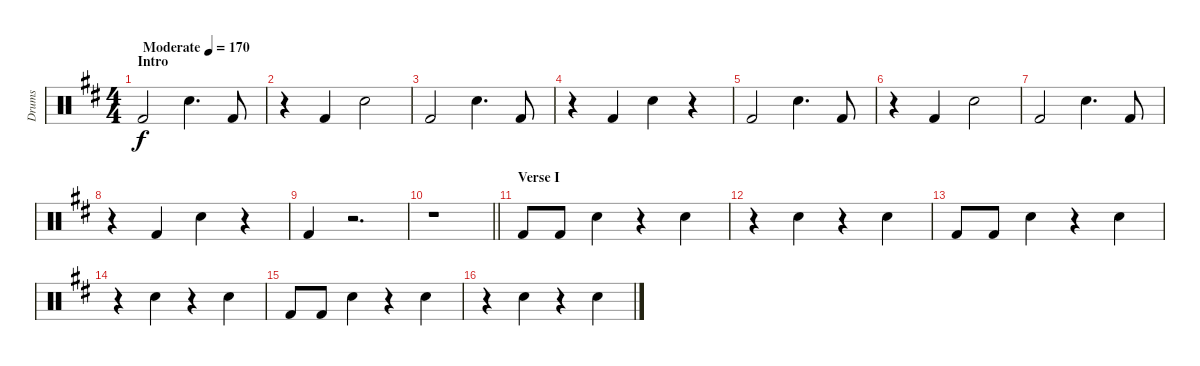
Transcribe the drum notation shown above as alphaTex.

\track ("Drums" "Drums") {instrument percussion}
\staff {score}
\articulation defaults
\ts (4 4)
\section ("" "Intro")
\tempo (170 "Moderate")
\clef neutral
\ks d "Kick (hit) 2".2{dy f} "Electric Snare (hit)".4{d} "Kick (hit) 2".8
|
r.4 "Kick (hit) 2".4 "Electric Snare (hit)".2 |
"Kick (hit) 2".2 "Electric Snare (hit)".4{d} "Kick (hit) 2".8 |
r.4 "Kick (hit) 2".4 "Electric Snare (hit)".4 r.4 |
"Kick (hit) 2".2 "Electric Snare (hit)".4{d} "Kick (hit) 2".8 |
r.4 "Kick (hit) 2".4 "Electric Snare (hit)".2 |
"Kick (hit) 2".2 "Electric Snare (hit)".4{d} "Kick (hit) 2".8 |
r.4 "Kick (hit) 2".4 "Electric Snare (hit)".4 r.4 |
"Kick (hit) 2".4 r.2{d} |
\barLineRight lightlight
r.1 |
\section ("" "Verse I")
"Kick (hit) 2".8 "Kick (hit) 2".8 "Electric Snare (hit)".4 r.4 "Electric Snare (hit)".4 |
r.4 "Electric Snare (hit)".4 r.4 "Electric Snare (hit)".4 |
"Kick (hit) 2".8 "Kick (hit) 2".8 "Electric Snare (hit)".4 r.4 "Electric Snare (hit)".4 |
r.4 "Electric Snare (hit)".4 r.4 "Electric Snare (hit)".4 |
"Kick (hit) 2".8 "Kick (hit) 2".8 "Electric Snare (hit)".4 r.4 "Electric Snare (hit)".4 |
r.4 "Electric Snare (hit)".4 r.4 "Electric Snare (hit)".4
